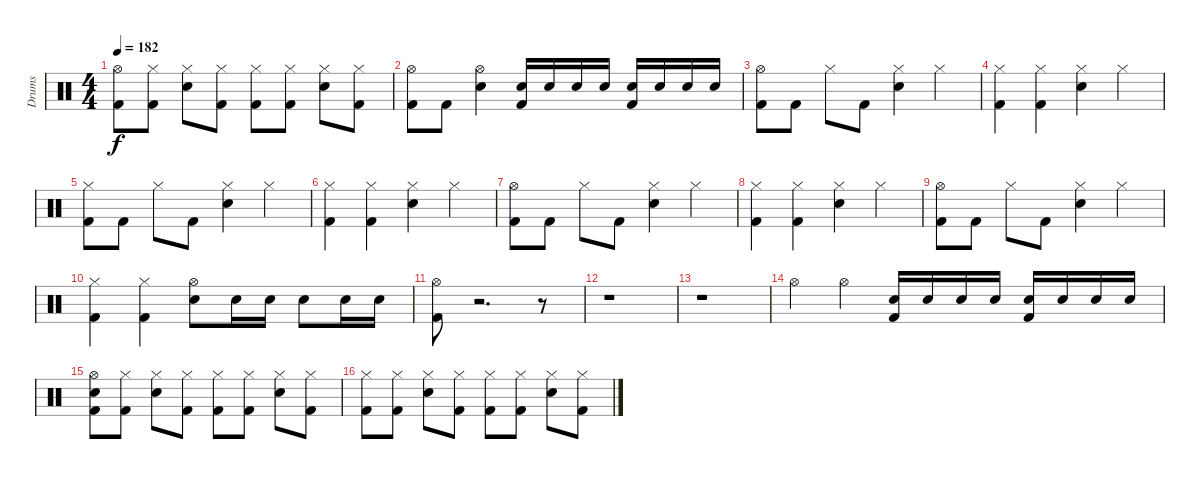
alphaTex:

\track ("Drums" "Drums") {instrument percussion}
\staff {score}
\articulation defaults
\ts (4 4)
\tempo 182
\clef neutral
\ks c
("Kick (hit) 2" "Hi-Hat (open)").8{dy f} ("Kick (hit) 2" "Hi-Hat (closed)").8 ("Snare (hit) 2" "Hi-Hat (closed)").8 ("Kick (hit) 2" "Hi-Hat (closed)").8 ("Kick (hit) 2" "Hi-Hat (closed)").8 ("Kick (hit) 2" "Hi-Hat (closed)").8 ("Snare (hit) 2" "Hi-Hat (closed)").8 ("Kick (hit) 2" "Hi-Hat (closed)").8 |
("Hi-Hat (open)" "Kick (hit) 2").8 "Kick (hit) 2".8 ("Hi-Hat (open)" "Snare (hit) 2").4 ("Snare (hit) 2" "Kick (hit) 2").16 "Snare (hit) 2".16 "Snare (hit) 2".16 "Snare (hit) 2".16 ("Kick (hit) 2" "Snare (hit) 2").16 "Snare (hit) 2".16 "Snare (hit) 2".16 "Snare (hit) 2".16 |
("Kick (hit) 2" "Hi-Hat (open)").8 "Kick (hit) 2".8 "Hi-Hat (closed)".8 "Kick (hit) 2".8 ("Snare (hit) 2" "Hi-Hat (closed)").4 "Hi-Hat (closed)".4 |
("Kick (hit) 2" "Hi-Hat (closed)").4 ("Kick (hit) 2" "Hi-Hat (closed)").4 ("Snare (hit) 2" "Hi-Hat (closed)").4 "Hi-Hat (closed)".4 |
("Kick (hit) 2" "Hi-Hat (closed)").8 "Kick (hit) 2".8 "Hi-Hat (closed)".8 "Kick (hit) 2".8 ("Snare (hit) 2" "Hi-Hat (closed)").4 "Hi-Hat (closed)".4 |
("Kick (hit) 2" "Hi-Hat (closed)").4 ("Kick (hit) 2" "Hi-Hat (closed)").4 ("Snare (hit) 2" "Hi-Hat (closed)").4 "Hi-Hat (closed)".4 |
("Hi-Hat (open)" "Kick (hit) 2").8 "Kick (hit) 2".8 "Hi-Hat (closed)".8 "Kick (hit) 2".8 ("Snare (hit) 2" "Hi-Hat (closed)").4 "Hi-Hat (closed)".4 |
("Kick (hit) 2" "Hi-Hat (closed)").4 ("Kick (hit) 2" "Hi-Hat (closed)").4 ("Snare (hit) 2" "Hi-Hat (closed)").4 "Hi-Hat (closed)".4 |
("Hi-Hat (open)" "Kick (hit) 2").8 "Kick (hit) 2".8 "Hi-Hat (closed)".8 "Kick (hit) 2".8 ("Snare (hit) 2" "Hi-Hat (closed)").4 "Hi-Hat (closed)".4 |
("Kick (hit) 2" "Hi-Hat (closed)").4 ("Kick (hit) 2" "Hi-Hat (closed)").4 ("Hi-Hat (open)" "Snare (hit) 2").8 "Snare (hit) 2".16 "Snare (hit) 2".16 "Snare (hit) 2".8 "Snare (hit) 2".16 "Snare (hit) 2".16 |
("Kick (hit) 2" "Hi-Hat (open)").8 r.2{d} r.8 |
r.1 |
r.1 |
"Hi-Hat (open)".4 "Hi-Hat (open)".4 ("Snare (hit) 2" "Kick (hit) 2").16 "Snare (hit) 2".16 "Snare (hit) 2".16 "Snare (hit) 2".16 ("Snare (hit) 2" "Kick (hit) 2").16 "Snare (hit) 2".16 "Snare (hit) 2".16 "Snare (hit) 2".16 |
("Snare (hit)" "Kick (hit) 2" "Hi-Hat (open)").8 ("Kick (hit) 2" "Hi-Hat (closed)").8 ("Snare (hit) 2" "Hi-Hat (closed)").8 ("Kick (hit) 2" "Hi-Hat (closed)").8 ("Kick (hit) 2" "Hi-Hat (closed)").8 ("Kick (hit) 2" "Hi-Hat (closed)").8 ("Snare (hit) 2" "Hi-Hat (closed)").8 ("Kick (hit) 2" "Hi-Hat (closed)").8 |
("Kick (hit) 2" "Hi-Hat (closed)").8 ("Kick (hit) 2" "Hi-Hat (closed)").8 ("Snare (hit) 2" "Hi-Hat (closed)").8 ("Kick (hit) 2" "Hi-Hat (closed)").8 ("Kick (hit) 2" "Hi-Hat (closed)").8 ("Kick (hit) 2" "Hi-Hat (closed)").8 ("Snare (hit) 2" "Hi-Hat (closed)").8 ("Kick (hit) 2" "Hi-Hat (closed)").8
